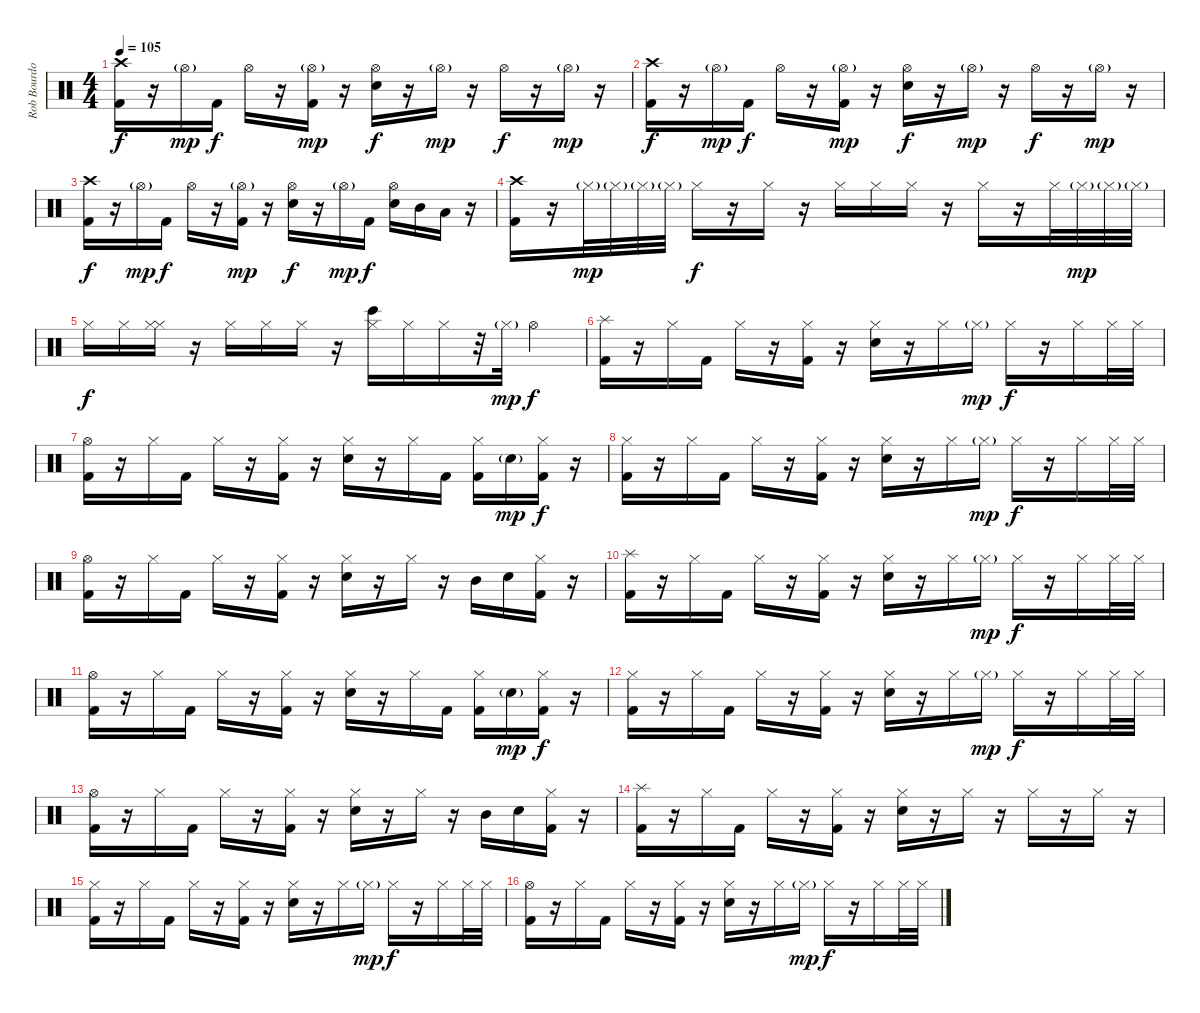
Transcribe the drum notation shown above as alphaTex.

\track ("Rob Bourdon (Drums)" "Rob Bourdo") {instrument percussion}
\staff {score}
\articulation defaults
\ts (4 4)
\tempo 105
\clef neutral
\ks c
("Crash high (hit)" "Kick (hit) 2").16{dy f} r.16 "Hi-Hat (open)"{g}.16{dy mp} "Kick (hit) 2".16{dy f} "Hi-Hat (open)".16 r.16 ("Hi-Hat (open)"{g} "Kick (hit) 2").16{dy mp} r.16 ("Hi-Hat (open)" "Electric Snare (hit)").16{dy f} r.16 "Hi-Hat (open)"{g}.16{dy mp} r.16 "Hi-Hat (open)".16{dy f} r.16 "Hi-Hat (open)"{g}.16{dy mp} r.16 |
("Crash high (hit)" "Kick (hit) 2").16{dy f} r.16 "Hi-Hat (open)"{g}.16{dy mp} "Kick (hit) 2".16{dy f} "Hi-Hat (open)".16 r.16 ("Hi-Hat (open)"{g} "Kick (hit) 2").16{dy mp} r.16 ("Hi-Hat (open)" "Electric Snare (hit)").16{dy f} r.16 "Hi-Hat (open)"{g}.16{dy mp} r.16 "Hi-Hat (open)".16{dy f} r.16 "Hi-Hat (open)"{g}.16{dy mp} r.16 |
("Crash high (hit)" "Kick (hit) 2").16{dy f} r.16 "Hi-Hat (open)"{g}.16{dy mp} "Kick (hit) 2".16{dy f} "Hi-Hat (open)".16 r.16 ("Hi-Hat (open)"{g} "Kick (hit) 2").16{dy mp} r.16 ("Hi-Hat (open)" "Electric Snare (hit)").16{dy f} r.16 "Hi-Hat (open)"{g}.16{dy mp} "Kick (hit) 2".16{dy f} ("Hi-Hat (open)" "Electric Snare (hit)").16 "Mid Tom (hit)".16 "Low Tom (hit)".16 r.16 |
("Crash high (hit)" "Kick (hit) 2").16 r.16 "Hi-Hat (closed)"{g}.32{dy mp} "Hi-Hat (closed)"{g}.32 "Hi-Hat (closed)"{g}.32 "Hi-Hat (closed)"{g}.32 "Hi-Hat (closed)".16{dy f} r.16 "Hi-Hat (closed)".16 r.16 "Hi-Hat (closed)".16 "Hi-Hat (closed)".16 "Hi-Hat (closed)".16 r.16 "Hi-Hat (closed)".16 r.16 "Hi-Hat (closed)".32 "Hi-Hat (closed)"{g}.32{dy mp} "Hi-Hat (closed)"{g}.32 "Hi-Hat (closed)"{g}.32 |
"Hi-Hat (closed)".16{dy f} "Hi-Hat (closed)".16 ("Hi-Hat (closed)" "Hi-Hat (closed)").16 r.16 "Hi-Hat (closed)".16 "Hi-Hat (closed)".16 "Hi-Hat (closed)".16 r.16 ("Hi-Hat (closed)" "Bongo High (hit)").16 "Hi-Hat (closed)".16 "Hi-Hat (closed)".16 r.32 "Hi-Hat (closed)"{g}.32{dy mp} "Hi-Hat (open)".4{dy f} |
("Splash (hit)" "Kick (hit) 2").16 r.16 "Hi-Hat (closed)".16 "Kick (hit) 2".16 "Hi-Hat (closed)".16 r.16 ("Hi-Hat (closed)" "Kick (hit) 2").16 r.16 ("Hi-Hat (closed)" "Electric Snare (hit)").16 r.16 "Hi-Hat (closed)".16 "Hi-Hat (closed)"{g}.16{dy mp} "Hi-Hat (closed)".16{dy f} r.16 "Hi-Hat (closed)".16 "Hi-Hat (closed)".32 "Hi-Hat (closed)".32 |
("Hi-Hat (open)" "Kick (hit) 2").16 r.16 "Hi-Hat (closed)".16 "Kick (hit) 2".16 "Hi-Hat (closed)".16 r.16 ("Hi-Hat (closed)" "Kick (hit) 2").16 r.16 ("Hi-Hat (closed)" "Electric Snare (hit)").16 r.16 "Hi-Hat (closed)".16 "Kick (hit) 2".16 ("Hi-Hat (closed)" "Kick (hit) 2").16 "Electric Snare (hit)"{g}.16{dy mp} ("Hi-Hat (closed)" "Kick (hit) 2").16{dy f} r.16 |
("Hi-Hat (closed)" "Kick (hit) 2").16 r.16 "Hi-Hat (closed)".16 "Kick (hit) 2".16 "Hi-Hat (closed)".16 r.16 ("Hi-Hat (closed)" "Kick (hit) 2").16 r.16 ("Hi-Hat (closed)" "Electric Snare (hit)").16 r.16 "Hi-Hat (closed)".16 "Hi-Hat (closed)"{g}.16{dy mp} "Hi-Hat (closed)".16{dy f} r.16 "Hi-Hat (closed)".16 "Hi-Hat (closed)".32 "Hi-Hat (closed)".32 |
("Hi-Hat (open)" "Kick (hit) 2").16 r.16 "Hi-Hat (closed)".16 "Kick (hit) 2".16 "Hi-Hat (closed)".16 r.16 ("Hi-Hat (closed)" "Kick (hit) 2").16 r.16 ("Hi-Hat (closed)" "Electric Snare (hit)").16 r.16 "Hi-Hat (closed)".16 r.16 "Mid Tom (hit)".16 "Electric Snare (hit)".16 ("Hi-Hat (closed)" "Kick (hit) 2").16 r.16 |
("Splash (hit)" "Kick (hit) 2").16 r.16 "Hi-Hat (closed)".16 "Kick (hit) 2".16 "Hi-Hat (closed)".16 r.16 ("Hi-Hat (closed)" "Kick (hit) 2").16 r.16 ("Hi-Hat (closed)" "Electric Snare (hit)").16 r.16 "Hi-Hat (closed)".16 "Hi-Hat (closed)"{g}.16{dy mp} "Hi-Hat (closed)".16{dy f} r.16 "Hi-Hat (closed)".16 "Hi-Hat (closed)".32 "Hi-Hat (closed)".32 |
("Hi-Hat (open)" "Kick (hit) 2").16 r.16 "Hi-Hat (closed)".16 "Kick (hit) 2".16 "Hi-Hat (closed)".16 r.16 ("Hi-Hat (closed)" "Kick (hit) 2").16 r.16 ("Hi-Hat (closed)" "Electric Snare (hit)").16 r.16 "Hi-Hat (closed)".16 "Kick (hit) 2".16 ("Hi-Hat (closed)" "Kick (hit) 2").16 "Electric Snare (hit)"{g}.16{dy mp} ("Hi-Hat (closed)" "Kick (hit) 2").16{dy f} r.16 |
("Hi-Hat (closed)" "Kick (hit) 2").16 r.16 "Hi-Hat (closed)".16 "Kick (hit) 2".16 "Hi-Hat (closed)".16 r.16 ("Hi-Hat (closed)" "Kick (hit) 2").16 r.16 ("Hi-Hat (closed)" "Electric Snare (hit)").16 r.16 "Hi-Hat (closed)".16 "Hi-Hat (closed)"{g}.16{dy mp} "Hi-Hat (closed)".16{dy f} r.16 "Hi-Hat (closed)".16 "Hi-Hat (closed)".32 "Hi-Hat (closed)".32 |
("Hi-Hat (open)" "Kick (hit) 2").16 r.16 "Hi-Hat (closed)".16 "Kick (hit) 2".16 "Hi-Hat (closed)".16 r.16 ("Hi-Hat (closed)" "Kick (hit) 2").16 r.16 ("Hi-Hat (closed)" "Electric Snare (hit)").16 r.16 "Hi-Hat (closed)".16 r.16 "Mid Tom (hit)".16 "Electric Snare (hit)".16 ("Hi-Hat (closed)" "Kick (hit) 2").16 r.16 |
("Splash (hit)" "Kick (hit) 2").16 r.16 "Hi-Hat (closed)".16 "Kick (hit) 2".16 "Hi-Hat (closed)".16 r.16 ("Hi-Hat (closed)" "Kick (hit) 2").16 r.16 ("Hi-Hat (closed)" "Electric Snare (hit)").16 r.16 "Hi-Hat (closed)".16 r.16 "Hi-Hat (closed)".16 r.16 "Hi-Hat (closed)".16 r.16 |
("Hi-Hat (closed)" "Kick (hit) 2").16 r.16 "Hi-Hat (closed)".16 "Kick (hit) 2".16 "Hi-Hat (closed)".16 r.16 ("Hi-Hat (closed)" "Kick (hit) 2").16 r.16 ("Hi-Hat (closed)" "Electric Snare (hit)").16 r.16 "Hi-Hat (closed)".16 "Hi-Hat (closed)"{g}.16{dy mp} "Hi-Hat (closed)".16{dy f} r.16 "Hi-Hat (closed)".16 "Hi-Hat (closed)".32 "Hi-Hat (closed)".32 |
("Hi-Hat (open)" "Kick (hit) 2").16 r.16 "Hi-Hat (closed)".16 "Kick (hit) 2".16 "Hi-Hat (closed)".16 r.16 ("Hi-Hat (closed)" "Kick (hit) 2").16 r.16 ("Hi-Hat (closed)" "Electric Snare (hit)").16 r.16 "Hi-Hat (closed)".16 "Hi-Hat (closed)"{g}.16{dy mp} "Hi-Hat (closed)".16{dy f} r.16 "Hi-Hat (closed)".16 "Hi-Hat (closed)".32 "Hi-Hat (closed)".32
